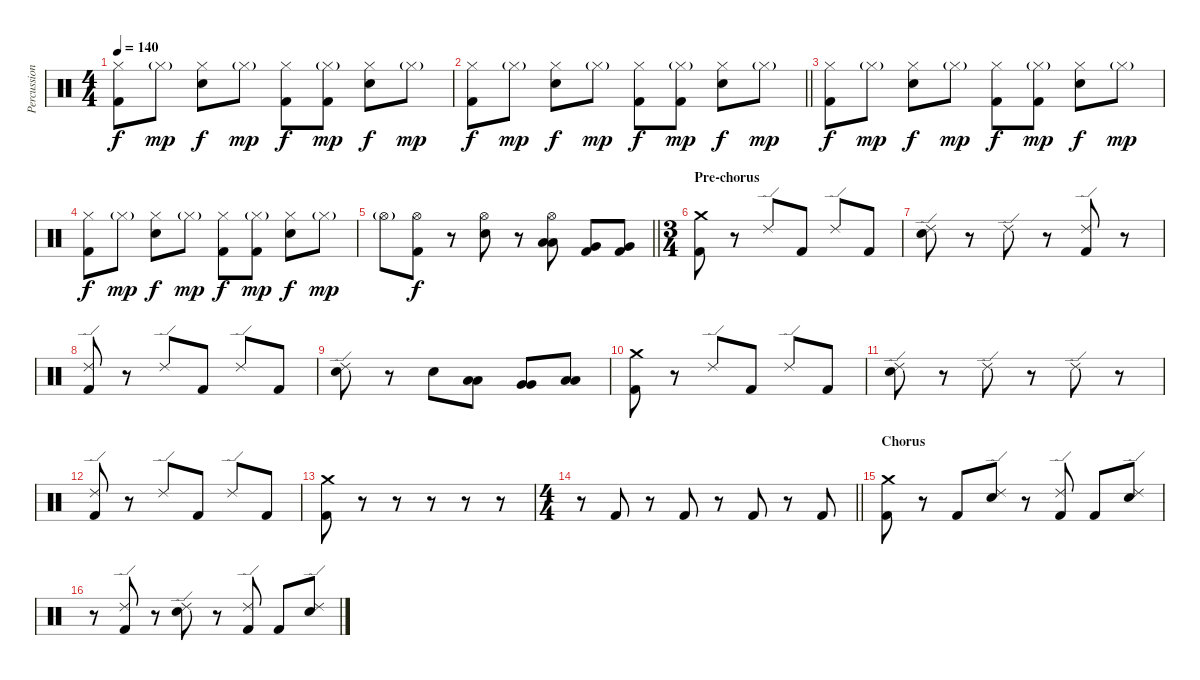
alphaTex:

\track ("Percussion" "Percussion") {instrument percussion}
\staff {score}
\articulation defaults
\ts (4 4)
\tempo 140
\clef neutral
\ks c
("Hi-Hat (closed)" "Kick (hit) 2").8{dy f} "Hi-Hat (closed)"{g}.8{dy mp} ("Hi-Hat (closed)" "Electric Snare (hit)").8{dy f} "Hi-Hat (closed)"{g}.8{dy mp} ("Hi-Hat (closed)" "Kick (hit) 2").8{dy f} ("Hi-Hat (closed)"{g} "Kick (hit) 2").8{dy mp} ("Hi-Hat (closed)" "Electric Snare (hit)").8{dy f} "Hi-Hat (closed)"{g}.8{dy mp} |
\barLineRight lightlight
("Hi-Hat (closed)" "Kick (hit) 2").8{dy f} "Hi-Hat (closed)"{g}.8{dy mp} ("Hi-Hat (closed)" "Electric Snare (hit)").8{dy f} "Hi-Hat (closed)"{g}.8{dy mp} ("Hi-Hat (closed)" "Kick (hit) 2").8{dy f} ("Hi-Hat (closed)"{g} "Kick (hit) 2").8{dy mp} ("Hi-Hat (closed)" "Electric Snare (hit)").8{dy f} "Hi-Hat (closed)"{g}.8{dy mp} |
("Hi-Hat (closed)" "Kick (hit) 2").8{dy f} "Hi-Hat (closed)"{g}.8{dy mp} ("Hi-Hat (closed)" "Electric Snare (hit)").8{dy f} "Hi-Hat (closed)"{g}.8{dy mp} ("Hi-Hat (closed)" "Kick (hit) 2").8{dy f} ("Hi-Hat (closed)"{g} "Kick (hit) 2").8{dy mp} ("Hi-Hat (closed)" "Electric Snare (hit)").8{dy f} "Hi-Hat (closed)"{g}.8{dy mp} |
("Hi-Hat (closed)" "Kick (hit) 2").8{dy f} "Hi-Hat (closed)"{g}.8{dy mp} ("Hi-Hat (closed)" "Electric Snare (hit)").8{dy f} "Hi-Hat (closed)"{g}.8{dy mp} ("Hi-Hat (closed)" "Kick (hit) 2").8{dy f} ("Hi-Hat (closed)"{g} "Kick (hit) 2").8{dy mp} ("Hi-Hat (closed)" "Electric Snare (hit)").8{dy f} "Hi-Hat (closed)"{g}.8{dy mp} |
\barLineRight lightlight "Hi-Hat (open)"{g}.8
("Hi-Hat (open)" "Kick (hit) 2").8{dy f} r.8 ("Hi-Hat (open)" "Electric Snare (hit)").8 r.8 ("Hi-Hat (open)" "Low Floor Tom (hit)" "Low Floor Tom (hit)").8 ("Very Low Tom (hit)" "Kick (hit) 2").8 ("Very Low Tom (hit)" "Kick (hit) 2").8 |
\ts (3 4)
\section ("" "Pre-chorus")
("Crash medium (hit)" "Kick (hit) 2").8 r.8 "Ride (edge) 2".8 "Kick (hit) 2".8 "Ride (edge) 2".8 "Kick (hit) 2".8 |
("Ride (edge) 2" "Electric Snare (hit)").8 r.8 "Ride (edge) 2".8 r.8 ("Ride (edge) 2" "Kick (hit) 2").8 r.8 |
("Ride (edge) 2" "Kick (hit) 2").8 r.8 "Ride (edge) 2".8 "Kick (hit) 2".8 "Ride (edge) 2".8 "Kick (hit) 2".8 |
("Ride (edge) 2" "Electric Snare (hit)").8 r.8 "Electric Snare (hit)".8 ("Low Floor Tom (hit)" "Low Floor Tom (hit)").8 ("Very Low Tom (hit)" "Very Low Tom (hit)").8 ("Low Tom (hit)" "Low Tom (hit)").8 |
("Crash medium (hit)" "Kick (hit) 2").8 r.8 "Ride (edge) 2".8 "Kick (hit) 2".8 "Ride (edge) 2".8 "Kick (hit) 2".8 |
("Ride (edge) 2" "Electric Snare (hit)").8 r.8 "Ride (edge) 2".8 r.8 "Ride (edge) 2".8 r.8 |
("Ride (edge) 2" "Kick (hit) 2").8 r.8 "Ride (edge) 2".8 "Kick (hit) 2".8 "Ride (edge) 2".8 "Kick (hit) 2".8 |
("Crash medium (hit)" "Kick (hit) 2").8 r.8 r.8 r.8 r.8 r.8 |
\ts (4 4)
\barLineRight lightlight
r.8 "Kick (hit) 2".8 r.8 "Kick (hit) 2".8 r.8 "Kick (hit) 2".8 r.8 "Kick (hit) 2".8 |
\section ("" "Chorus")
("Crash medium (hit)" "Kick (hit) 2").8 r.8 "Kick (hit) 2".8 ("Ride (edge) 2" "Electric Snare (hit)").8 r.8 ("Ride (edge) 2" "Kick (hit) 2").8 "Kick (hit) 2".8 ("Ride (edge) 2" "Electric Snare (hit)").8 |
r.8 ("Ride (edge) 2" "Kick (hit) 2").8 r.8 ("Ride (edge) 2" "Electric Snare (hit)").8 r.8 ("Ride (edge) 2" "Kick (hit) 2").8 "Kick (hit) 2".8 ("Ride (edge) 2" "Electric Snare (hit)").8
